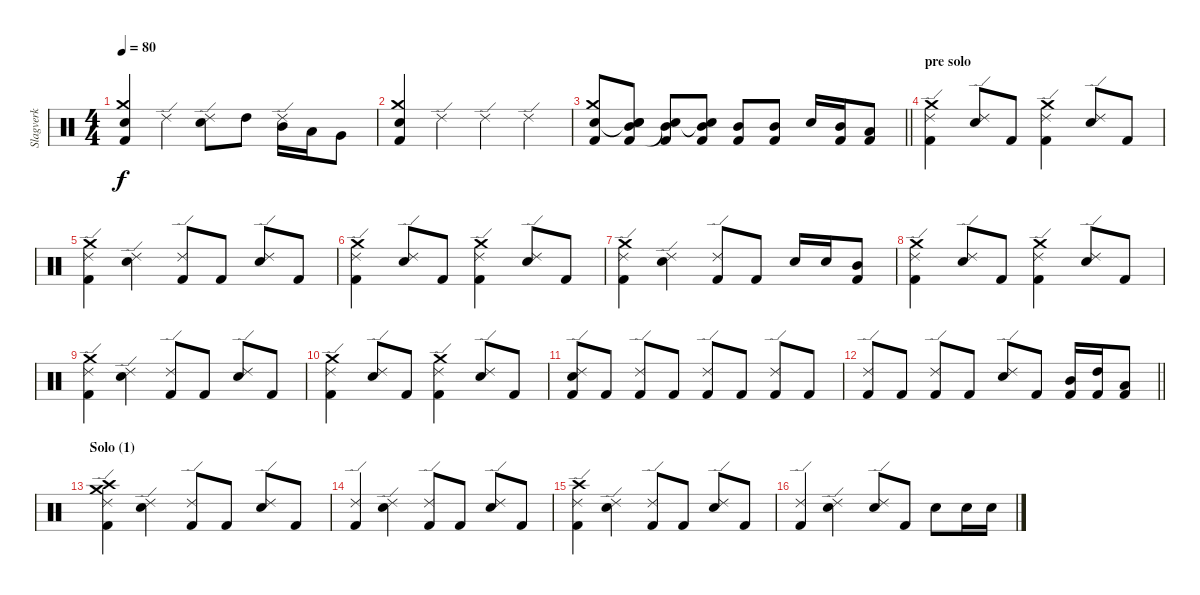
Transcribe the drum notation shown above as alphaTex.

\track ("Slagverk" "Slagverk") {instrument percussion}
\staff {score}
\articulation defaults
\ts (4 4)
\tempo 80
\clef neutral
\ks c
("Electric Snare (hit)" "Crash medium (hit)" "Kick (hit) 2").4{dy f} "Ride (edge) 2".4 ("Ride (edge) 2" "Electric Snare (hit)").8 "High Tom (hit)".8 ("Ride (edge) 2" "Mid Tom (hit)").16 "Low Tom (hit)".16 "Very Low Tom (hit)".8 |
("Electric Snare (hit)" "Crash medium (hit)" "Kick (hit) 2").4 "Ride (edge) 2".4 "Ride (edge) 2".4 "Ride (edge) 2".4 |
\barLineRight lightlight
("Electric Snare (hit)" "Kick (hit) 2" "Crash medium (hit)").8 ("Snare (hit)"{t} "Mid Tom (hit)" "Kick (hit) 2" "Snare (hit)").8 ("Mid Tom (hit)" "Kick (hit) 2" "Snare (hit)"{t}).8 ("Mid Tom (hit)" "Kick (hit) 2" "Snare (hit)"{t}).8 ("Mid Tom (hit)" "Kick (hit) 2").8 ("Mid Tom (hit)" "Kick (hit) 2").8 "Electric Snare (hit)".16 ("Mid Tom (hit)" "Kick (hit) 2").16 ("Low Tom (hit)" "Kick (hit) 2").8 |
\section ("" "pre solo")
("Ride (edge) 2" "Kick (hit) 2" "Crash medium (hit)").4 ("Electric Snare (hit)" "Ride (edge) 2").8 "Kick (hit) 2".8 ("Ride (edge) 2" "Kick (hit) 2" "Crash medium (hit)").4 ("Electric Snare (hit)" "Ride (edge) 2").8 "Kick (hit) 2".8 |
("Ride (edge) 2" "Kick (hit) 2" "Crash medium (hit)").4 ("Electric Snare (hit)" "Ride (edge) 2").4 ("Ride (edge) 2" "Kick (hit) 2").8 "Kick (hit) 2".8 ("Electric Snare (hit)" "Ride (edge) 2").8 "Kick (hit) 2".8 |
("Ride (edge) 2" "Kick (hit) 2" "Crash medium (hit)").4 ("Electric Snare (hit)" "Ride (edge) 2").8 "Kick (hit) 2".8 ("Ride (edge) 2" "Kick (hit) 2" "Crash medium (hit)").4 ("Electric Snare (hit)" "Ride (edge) 2").8 "Kick (hit) 2".8 |
("Ride (edge) 2" "Kick (hit) 2" "Crash medium (hit)").4 ("Electric Snare (hit)" "Ride (edge) 2").4 ("Ride (edge) 2" "Kick (hit) 2").8 "Kick (hit) 2".8 "Electric Snare (hit)".16 "Electric Snare (hit)".16 ("Mid Tom (hit)" "Kick (hit) 2").8 |
("Ride (edge) 2" "Kick (hit) 2" "Crash medium (hit)").4 ("Electric Snare (hit)" "Ride (edge) 2").8 "Kick (hit) 2".8 ("Ride (edge) 2" "Kick (hit) 2" "Crash medium (hit)").4 ("Electric Snare (hit)" "Ride (edge) 2").8 "Kick (hit) 2".8 |
("Ride (edge) 2" "Kick (hit) 2" "Crash medium (hit)").4 ("Electric Snare (hit)" "Ride (edge) 2").4 ("Ride (edge) 2" "Kick (hit) 2").8 "Kick (hit) 2".8 ("Electric Snare (hit)" "Ride (edge) 2").8 "Kick (hit) 2".8 |
("Ride (edge) 2" "Kick (hit) 2" "Crash medium (hit)").4 ("Electric Snare (hit)" "Ride (edge) 2").8 "Kick (hit) 2".8 ("Ride (edge) 2" "Kick (hit) 2" "Crash medium (hit)").4 ("Electric Snare (hit)" "Ride (edge) 2").8 "Kick (hit) 2".8 |
("Electric Snare (hit)" "Ride (edge) 2" "Kick (hit) 2").8 "Kick (hit) 2".8 ("Ride (edge) 2" "Kick (hit) 2").8 "Kick (hit) 2".8 ("Ride (edge) 2" "Kick (hit) 2").8 "Kick (hit) 2".8 ("Ride (edge) 2" "Kick (hit) 2").8 "Kick (hit) 2".8 |
\barLineRight lightlight
("Ride (edge) 2" "Kick (hit) 2").8 "Kick (hit) 2".8 ("Ride (edge) 2" "Kick (hit) 2").8 "Kick (hit) 2".8 ("Electric Snare (hit)" "Ride (edge) 2").8 "Kick (hit) 2".8 ("Mid Tom (hit)" "Kick (hit) 2").16 ("High Tom (hit)" "Kick (hit) 2").16 ("Low Tom (hit)" "Kick (hit) 2").8 |
\section ("" "Solo (1)")
("Ride (edge) 2" "Kick (hit) 2" "Crash high (hit)" "Crash medium (hit)").4 ("Electric Snare (hit)" "Ride (edge) 2").4 ("Ride (edge) 2" "Kick (hit) 2").8 "Kick (hit) 2".8 ("Electric Snare (hit)" "Ride (edge) 2").8 "Kick (hit) 2".8 |
("Ride (edge) 2" "Kick (hit) 2").4 ("Electric Snare (hit)" "Ride (edge) 2").4 ("Ride (edge) 2" "Kick (hit) 2").8 "Kick (hit) 2".8 ("Electric Snare (hit)" "Ride (edge) 2").8 "Kick (hit) 2".8 |
("Ride (edge) 2" "Kick (hit) 2" "Crash high (hit)").4 ("Electric Snare (hit)" "Ride (edge) 2").4 ("Ride (edge) 2" "Kick (hit) 2").8 "Kick (hit) 2".8 ("Electric Snare (hit)" "Ride (edge) 2").8 "Kick (hit) 2".8 |
("Ride (edge) 2" "Kick (hit) 2").4 ("Electric Snare (hit)" "Ride (edge) 2").4 ("Electric Snare (hit)" "Ride (edge) 2").8 "Kick (hit) 2".8 "Electric Snare (hit)".8 "Electric Snare (hit)".16 "Electric Snare (hit)".16
